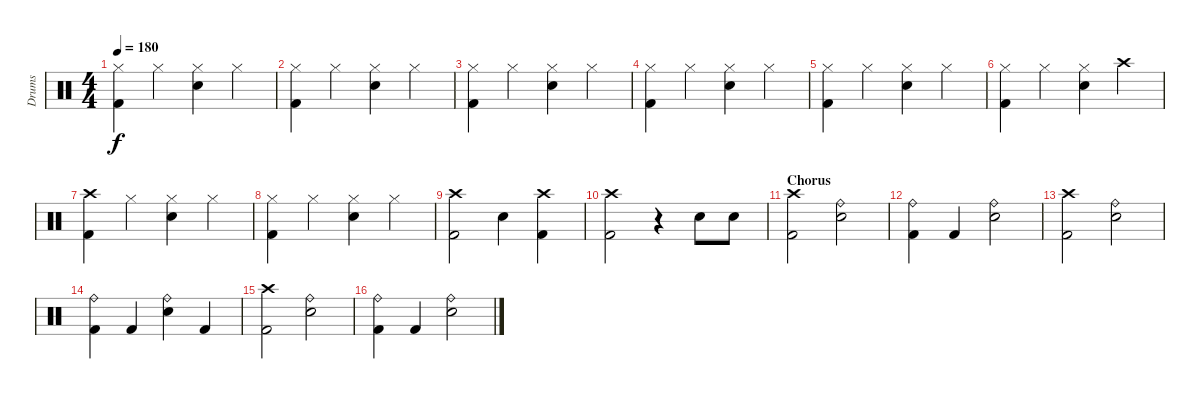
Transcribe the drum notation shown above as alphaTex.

\track ("Drums" "Drums") {instrument percussion}
\staff {score}
\articulation defaults
\ts (4 4)
\tempo 180
\clef neutral
\ks c
("Hi-Hat (closed)" "Kick (hit) 2").4{dy f} "Hi-Hat (closed)".4 ("Hi-Hat (closed)" "Snare (hit) 2").4 "Hi-Hat (closed)".4 |
("Hi-Hat (closed)" "Kick (hit) 2").4 "Hi-Hat (closed)".4 ("Hi-Hat (closed)" "Snare (hit) 2").4 "Hi-Hat (closed)".4 |
("Hi-Hat (closed)" "Kick (hit) 2").4 "Hi-Hat (closed)".4 ("Hi-Hat (closed)" "Snare (hit) 2").4 "Hi-Hat (closed)".4 |
("Hi-Hat (closed)" "Kick (hit) 2").4 "Hi-Hat (closed)".4 ("Hi-Hat (closed)" "Snare (hit) 2").4 "Hi-Hat (closed)".4 |
("Hi-Hat (closed)" "Kick (hit) 2").4 "Hi-Hat (closed)".4 ("Hi-Hat (closed)" "Snare (hit) 2").4 "Hi-Hat (closed)".4 |
("Hi-Hat (closed)" "Kick (hit) 2").4 "Hi-Hat (closed)".4 ("Hi-Hat (closed)" "Snare (hit) 2").4 "Crash high (hit)".4 |
("Crash high (hit)" "Kick (hit) 2").4 "Hi-Hat (closed)".4 ("Hi-Hat (closed)" "Snare (hit) 2").4 "Hi-Hat (closed)".4 |
("Hi-Hat (closed)" "Kick (hit) 2").4 "Hi-Hat (closed)".4 ("Hi-Hat (closed)" "Snare (hit) 2").4 "Hi-Hat (closed)".4 |
("Crash high (hit)" "Kick (hit) 2").2 "Snare (hit) 2".4 ("Crash high (hit)" "Kick (hit) 2").4 |
("Crash high (hit)" "Kick (hit) 2").2 r.4 "Snare (hit) 2".8 "Snare (hit) 2".8 |
\section ("" "Chorus")
("Crash high (hit)" "Kick (hit) 2").2 ("Ride (bell)" "Snare (hit) 2").2 |
("Ride (bell)" "Kick (hit) 2").4 "Kick (hit) 2".4 ("Ride (bell)" "Snare (hit) 2").2 |
("Crash high (hit)" "Kick (hit) 2").2 ("Ride (bell)" "Snare (hit) 2").2 |
("Ride (bell)" "Kick (hit) 2").4 "Kick (hit) 2".4 ("Ride (bell)" "Snare (hit) 2").4 "Kick (hit) 2".4 |
("Crash high (hit)" "Kick (hit) 2").2 ("Ride (bell)" "Snare (hit) 2").2 |
("Ride (bell)" "Kick (hit) 2").4 "Kick (hit) 2".4 ("Ride (bell)" "Snare (hit) 2").2
